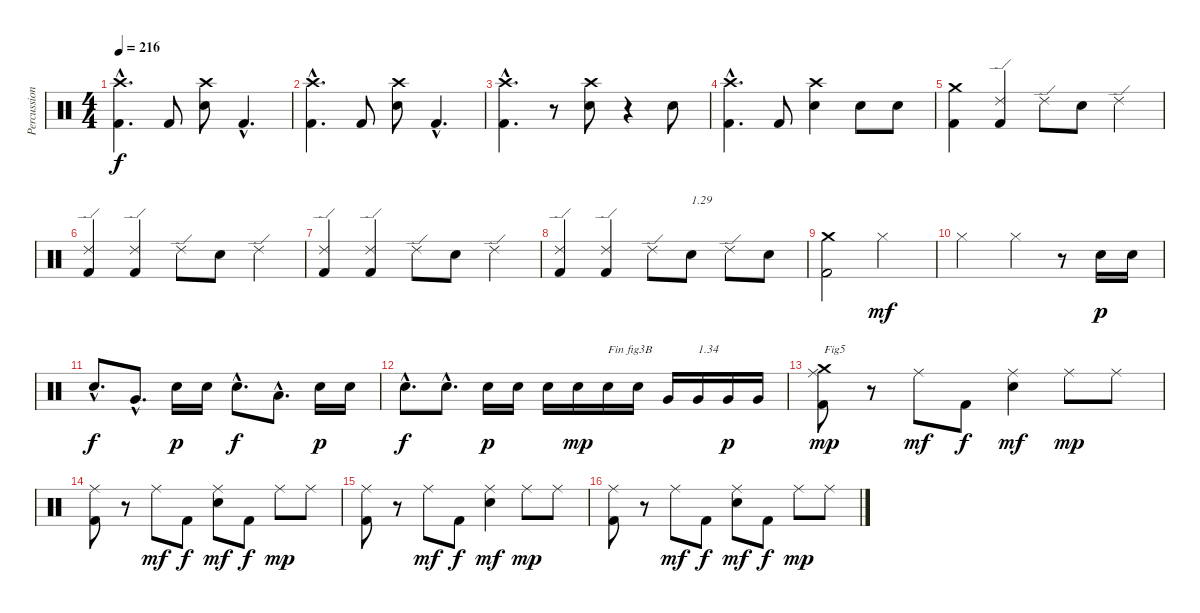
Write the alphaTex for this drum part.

\track ("Percussion" "Percussion") {instrument percussion}
\staff {score}
\articulation defaults
\ts (4 4)
\tempo 216
\clef neutral
\ks c
("Kick (hit) 2"{hac} "Crash high (hit)"{hac}).4{d dy f} "Kick (hit) 2".8 ("Electric Snare (hit)" "Crash high (hit)").8 "Kick (hit) 2"{hac}.4{d} |
("Kick (hit) 2"{hac} "Crash high (hit)"{hac}).4{d} "Kick (hit) 2".8 ("Electric Snare (hit)" "Crash high (hit)").8 "Kick (hit) 2"{hac}.4{d} |
("Kick (hit) 2"{hac} "Crash high (hit)"{hac}).4{d} r.8 ("Electric Snare (hit)" "Crash high (hit)").8 r.4 "Electric Snare (hit)".8 |
("Kick (hit) 2"{hac} "Crash high (hit)"{hac}).4{d} "Kick (hit) 2".8 ("Electric Snare (hit)" "Crash high (hit)").4 "Electric Snare (hit)".8 "Electric Snare (hit)".8 |
("Kick (hit) 2" "Crash medium (hit)").4 ("Kick (hit) 2" "Ride (edge) 2").4 "Ride (edge) 2".8 "Electric Snare (hit)".8 "Ride (edge) 2".4 |
("Kick (hit) 2" "Ride (edge) 2").4 ("Kick (hit) 2" "Ride (edge) 2").4 "Ride (edge) 2".8 "Electric Snare (hit)".8 "Ride (edge) 2".4 |
("Kick (hit) 2" "Ride (edge) 2").4 ("Kick (hit) 2" "Ride (edge) 2").4 "Ride (edge) 2".8 "Electric Snare (hit)".8 "Ride (edge) 2".4 |
("Kick (hit) 2" "Ride (edge) 2").4 ("Kick (hit) 2" "Ride (edge) 2").4 "Ride (edge) 2".8 "Electric Snare (hit)".8{txt "1.29"} "Ride (edge) 2".8 "Electric Snare (hit)".8 |
("Kick (hit) 2" "Crash medium (hit)").2 "Hi-Hat (closed)".2{dy mf} |
"Hi-Hat (closed)".2 "Hi-Hat (closed)".4 r.8 "Electric Snare (hit)".16{dy p} "Electric Snare (hit)".16 |
"Electric Snare (hit)"{hac}.8{d dy f} "Very Low Tom (hit)"{hac}.8{d} "Electric Snare (hit)".16{dy p} "Electric Snare (hit)".16 "Electric Snare (hit)"{hac}.8{d dy f} "Low Floor Tom (hit)"{hac}.8{d} "Electric Snare (hit)".16{dy p} "Electric Snare (hit)".16 |
"Electric Snare (hit)"{hac}.8{d dy f} "Electric Snare (hit)"{hac}.8{d} "Electric Snare (hit)".16{dy p} "Electric Snare (hit)".16 "Electric Snare (hit)".16 "Electric Snare (hit)".16{dy mp} "Electric Snare (hit)".16{txt "Fin fig3B"} "Electric Snare (hit)".16 "Very Low Tom (hit)".16 "Very Low Tom (hit)".16{txt "1.34"} "Very Low Tom (hit)".16{dy p} "Very Low Tom (hit)".16 |
("Kick (hit) 2" "Crash medium (hit)" "Ride (middle)").8{txt "Fig5" dy mp} r.8 "Ride (middle)".8{dy mf} "Kick (hit) 2".8{dy f} ("Electric Snare (hit)" "Ride (middle)").4{dy mf} "Ride (middle)".8{dy mp} "Ride (middle)".8 |
("Kick (hit) 2" "Ride (middle)").8 r.8 "Ride (middle)".8{dy mf} "Kick (hit) 2".8{dy f} ("Electric Snare (hit)" "Ride (middle)").8{dy mf} "Kick (hit) 2".8{dy f} "Ride (middle)".8{dy mp} "Ride (middle)".8 |
("Kick (hit) 2" "Ride (middle)").8 r.8 "Ride (middle)".8{dy mf} "Kick (hit) 2".8{dy f} ("Electric Snare (hit)" "Ride (middle)").4{dy mf} "Ride (middle)".8{dy mp} "Ride (middle)".8 |
("Kick (hit) 2" "Ride (middle)").8 r.8 "Ride (middle)".8{dy mf} "Kick (hit) 2".8{dy f} ("Electric Snare (hit)" "Ride (middle)").8{dy mf} "Kick (hit) 2".8{dy f} "Ride (middle)".8{dy mp} "Ride (middle)".8
